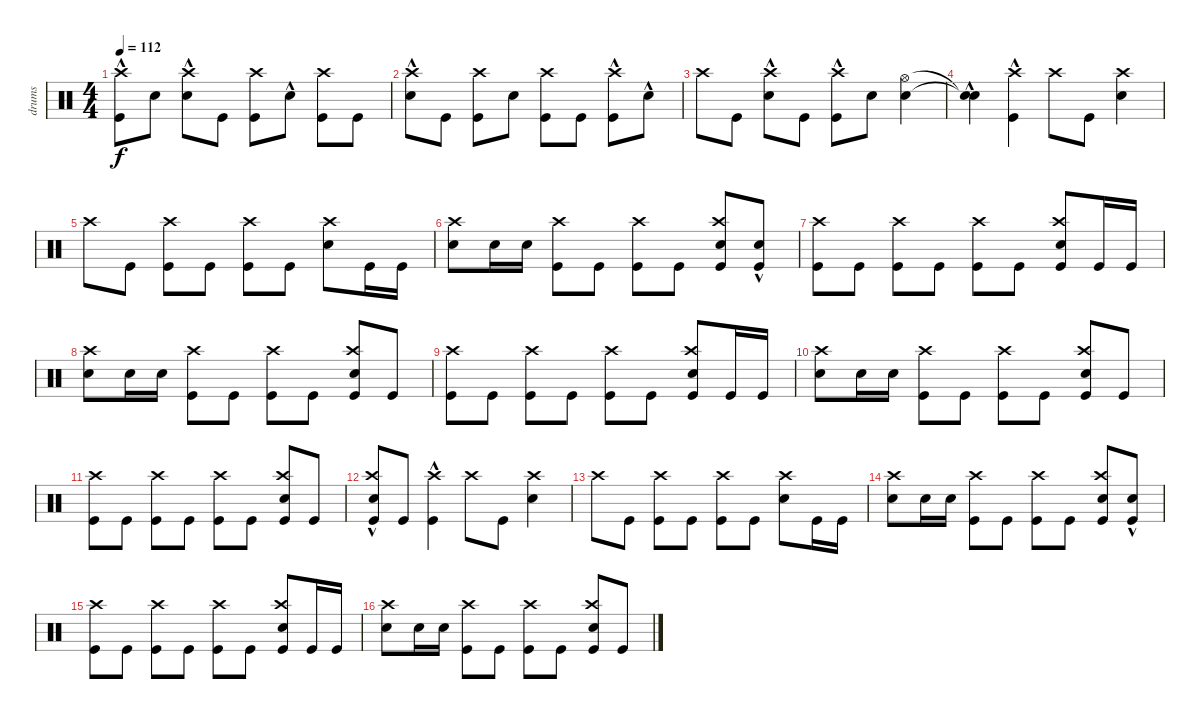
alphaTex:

\track ("drums" "drums") {instrument percussion}
\staff {score}
\articulation defaults
\ts (4 4)
\tempo 112
\clef neutral
\ks c
("Kick (hit)"{hac} "Crash high (hit)").8{dy f} "Snare (hit) 2".8 ("Snare (hit) 2"{hac} "Crash high (hit)").8 "Kick (hit)".8 ("Kick (hit)" "Crash high (hit)").8 "Snare (hit) 2"{hac}.8 ("Kick (hit)" "Crash high (hit)").8 "Kick (hit)".8 |
("Snare (hit) 2"{hac} "Crash high (hit)").8 "Kick (hit)".8 ("Kick (hit)" "Crash high (hit)").8 "Snare (hit) 2".8 ("Kick (hit)" "Crash high (hit)").8 "Kick (hit)".8 ("Kick (hit)"{hac} "Crash high (hit)").8 "Snare (hit) 2"{hac}.8 |
"Crash high (hit)".8 "Kick (hit)".8 ("Snare (hit) 2"{hac} "Crash high (hit)").8 "Kick (hit)".8 ("Kick (hit)"{hac} "Crash high (hit)"{hac}).8 "Snare (hit) 2".8 ("Snare (hit) 2" "Hi-Hat (open)").4 |
("Snare (hit)"{hac t} "Snare (hit)"{t}).4 ("Kick (hit)"{hac} "Crash high (hit)").4 "Crash high (hit)".8 "Kick (hit)".8 ("Snare (hit) 2" "Crash high (hit)").4 |
"Crash high (hit)".8 "Kick (hit)".8 ("Kick (hit)" "Crash high (hit)").8 "Kick (hit)".8 ("Kick (hit)" "Crash high (hit)").8 "Kick (hit)".8 ("Snare (hit) 2" "Crash high (hit)").8 "Kick (hit)".16 "Kick (hit)".16 |
("Snare (hit) 2" "Crash high (hit)").8 "Snare (hit) 2".16 "Snare (hit) 2".16 ("Kick (hit)" "Crash high (hit)").8 "Kick (hit)".8 ("Kick (hit)" "Crash high (hit)").8 "Kick (hit)".8 ("Kick (hit)" "Snare (hit) 2" "Crash high (hit)").8 ("Kick (hit)" "Snare (hit) 2"{hac}).8 |
("Kick (hit)" "Crash high (hit)").8 "Kick (hit)".8 ("Kick (hit)" "Crash high (hit)").8 "Kick (hit)".8 ("Kick (hit)" "Crash high (hit)").8 "Kick (hit)".8 ("Kick (hit)" "Snare (hit) 2" "Crash high (hit)").8 "Kick (hit)".16 "Kick (hit)".16 |
("Snare (hit) 2" "Crash high (hit)").8 "Snare (hit) 2".16 "Snare (hit) 2".16 ("Kick (hit)" "Crash high (hit)").8 "Kick (hit)".8 ("Kick (hit)" "Crash high (hit)").8 "Kick (hit)".8 ("Kick (hit)" "Snare (hit) 2" "Crash high (hit)").8 "Kick (hit)".8 |
("Kick (hit)" "Crash high (hit)").8 "Kick (hit)".8 ("Kick (hit)" "Crash high (hit)").8 "Kick (hit)".8 ("Kick (hit)" "Crash high (hit)").8 "Kick (hit)".8 ("Kick (hit)" "Snare (hit) 2" "Crash high (hit)").8 "Kick (hit)".16 "Kick (hit)".16 |
("Snare (hit) 2" "Crash high (hit)").8 "Snare (hit) 2".16 "Snare (hit) 2".16 ("Kick (hit)" "Crash high (hit)").8 "Kick (hit)".8 ("Kick (hit)" "Crash high (hit)").8 "Kick (hit)".8 ("Kick (hit)" "Snare (hit) 2" "Crash high (hit)").8 "Kick (hit)".8 |
("Kick (hit)" "Crash high (hit)").8 "Kick (hit)".8 ("Kick (hit)" "Crash high (hit)").8 "Kick (hit)".8 ("Kick (hit)" "Crash high (hit)").8 "Kick (hit)".8 ("Kick (hit)" "Snare (hit) 2" "Crash high (hit)").8 "Kick (hit)".8 |
("Kick (hit)" "Snare (hit) 2"{hac} "Crash high (hit)").8 "Kick (hit)".8 ("Kick (hit)"{hac} "Crash high (hit)").4 "Crash high (hit)".8 "Kick (hit)".8 ("Snare (hit) 2" "Crash high (hit)").4 |
"Crash high (hit)".8 "Kick (hit)".8 ("Kick (hit)" "Crash high (hit)").8 "Kick (hit)".8 ("Kick (hit)" "Crash high (hit)").8 "Kick (hit)".8 ("Snare (hit) 2" "Crash high (hit)").8 "Kick (hit)".16 "Kick (hit)".16 |
("Snare (hit) 2" "Crash high (hit)").8 "Snare (hit) 2".16 "Snare (hit) 2".16 ("Kick (hit)" "Crash high (hit)").8 "Kick (hit)".8 ("Kick (hit)" "Crash high (hit)").8 "Kick (hit)".8 ("Kick (hit)" "Snare (hit) 2" "Crash high (hit)").8 ("Kick (hit)" "Snare (hit) 2"{hac}).8 |
("Kick (hit)" "Crash high (hit)").8 "Kick (hit)".8 ("Kick (hit)" "Crash high (hit)").8 "Kick (hit)".8 ("Kick (hit)" "Crash high (hit)").8 "Kick (hit)".8 ("Kick (hit)" "Snare (hit) 2" "Crash high (hit)").8 "Kick (hit)".16 "Kick (hit)".16 |
("Snare (hit) 2" "Crash high (hit)").8 "Snare (hit) 2".16 "Snare (hit) 2".16 ("Kick (hit)" "Crash high (hit)").8 "Kick (hit)".8 ("Kick (hit)" "Crash high (hit)").8 "Kick (hit)".8 ("Kick (hit)" "Snare (hit) 2" "Crash high (hit)").8 "Kick (hit)".8
